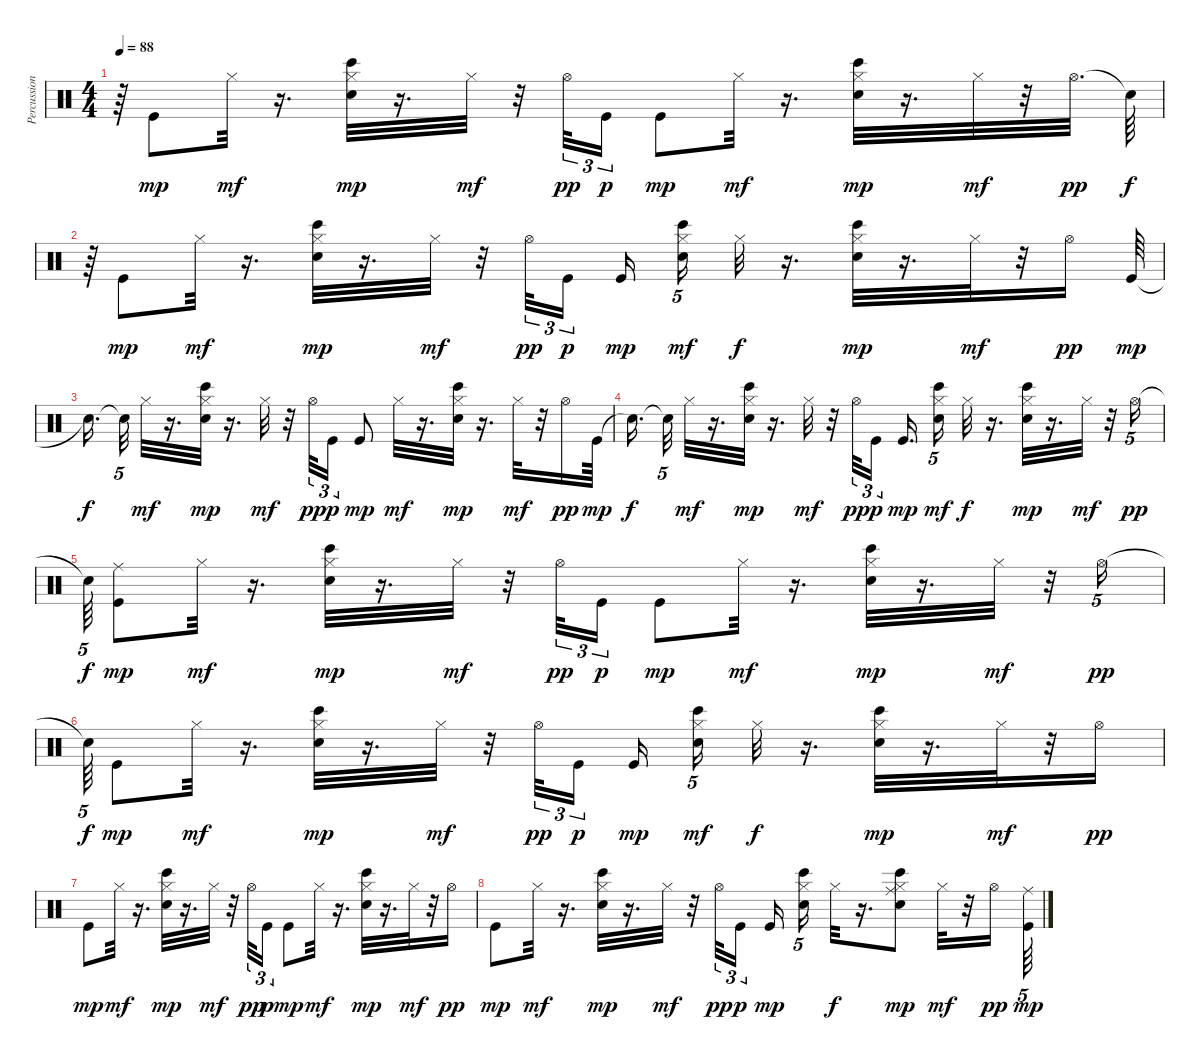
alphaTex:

\track ("Percussion" "Percussion") {instrument percussion}
\staff {score}
\articulation defaults
\ts (4 4)
\tempo 88
\clef neutral
\ks c
r.64{dy f} "Kick (hit)".8{dy mp} "Hi-Hat (closed)".32{dy mf} r.16{d} ("Bongo High (hit)" "Hi-Hat (closed)" "Electric Snare (hit)").32{dy mp} r.16{d} "Hi-Hat (closed)".32{dy mf} r.32 "Hi-Hat (open)".32{tu (3 2) dy pp} "Kick (hit)".16{tu (3 2) dy p} "Kick (hit)".8{dy mp} "Hi-Hat (closed)".32{dy mf} r.16{d} ("Bongo High (hit)" "Hi-Hat (closed)" "Electric Snare (hit)").32{dy mp} r.16{d} "Hi-Hat (closed)".32{dy mf} r.32 "Hi-Hat (open)".32{d dy pp} "Snare (hit)"{t}.64{dy f} |
r.64 "Kick (hit)".8{dy mp} "Hi-Hat (closed)".32{dy mf} r.16{d} ("Bongo High (hit)" "Hi-Hat (closed)" "Electric Snare (hit)").32{dy mp} r.16{d} "Hi-Hat (closed)".32{dy mf} r.32 "Hi-Hat (open)".32{tu (3 2) dy pp} "Kick (hit)".16{tu (3 2) dy p} "Kick (hit)".16{dy mp} ("Bongo High (hit)" "Electric Snare (hit)" "Hi-Hat (closed)").16{tu (5 4) dy mf} "Hi-Hat (closed)".32{dy f} r.16{d} ("Bongo High (hit)" "Hi-Hat (closed)" "Electric Snare (hit)").32{dy mp} r.16{d} "Hi-Hat (closed)".32{dy mf} r.32 "Hi-Hat (open)".16{dy pp} "Kick (hit)".64{dy mp} |
"Snare (hit)"{t}.16{d dy f} "Snare (hit)"{t}.32{tu (5 4)} "Hi-Hat (closed)".32{dy mf} r.16{d} ("Bongo High (hit)" "Hi-Hat (closed)" "Electric Snare (hit)").32{dy mp} r.16{d} "Hi-Hat (closed)".32{dy mf} r.32 "Hi-Hat (open)".32{tu (3 2) dy pp} "Kick (hit)".16{tu (3 2) dy p} "Kick (hit)".8{dy mp} "Hi-Hat (closed)".32{dy mf} r.16{d} ("Bongo High (hit)" "Hi-Hat (closed)" "Electric Snare (hit)").32{dy mp} r.16{d} "Hi-Hat (closed)".32{dy mf} r.32 "Hi-Hat (open)".16{dy pp} "Kick (hit)".64{dy mp} |
"Snare (hit)"{t}.16{d dy f} "Snare (hit)"{t}.32{tu (5 4)} "Hi-Hat (closed)".32{dy mf} r.16{d} ("Bongo High (hit)" "Hi-Hat (closed)" "Electric Snare (hit)").32{dy mp} r.16{d} "Hi-Hat (closed)".32{dy mf} r.32 "Hi-Hat (open)".32{tu (3 2) dy pp} "Kick (hit)".16{tu (3 2) dy p} "Kick (hit)".16{d dy mp} ("Bongo High (hit)" "Electric Snare (hit)" "Hi-Hat (closed)").16{tu (5 4) dy mf} "Hi-Hat (closed)".32{dy f} r.16{d} ("Bongo High (hit)" "Hi-Hat (closed)" "Electric Snare (hit)").32{dy mp} r.16{d} "Hi-Hat (closed)".32{dy mf} r.32 "Hi-Hat (open)".16{tu (5 4) dy pp} |
"Snare (hit)"{t}.64{tu (5 4) dy f} ("Ride (middle)" "Kick (hit)").8{dy mp} "Hi-Hat (closed)".32{dy mf} r.16{d} ("Bongo High (hit)" "Hi-Hat (closed)" "Electric Snare (hit)").32{dy mp} r.16{d} "Hi-Hat (closed)".32{dy mf} r.32 "Hi-Hat (open)".32{tu (3 2) dy pp} "Kick (hit)".16{tu (3 2) dy p} "Kick (hit)".8{dy mp} "Hi-Hat (closed)".32{dy mf} r.16{d} ("Bongo High (hit)" "Hi-Hat (closed)" "Electric Snare (hit)").32{dy mp} r.16{d} "Hi-Hat (closed)".32{dy mf} r.32 "Hi-Hat (open)".16{tu (5 4) dy pp} |
"Snare (hit)"{t}.64{tu (5 4) dy f} "Kick (hit)".8{dy mp} "Hi-Hat (closed)".32{dy mf} r.16{d} ("Bongo High (hit)" "Hi-Hat (closed)" "Electric Snare (hit)").32{dy mp} r.16{d} "Hi-Hat (closed)".32{dy mf} r.32 "Hi-Hat (open)".32{tu (3 2) dy pp} "Kick (hit)".16{tu (3 2) dy p} "Kick (hit)".16{dy mp} ("Bongo High (hit)" "Electric Snare (hit)" "Hi-Hat (closed)").16{tu (5 4) dy mf} "Hi-Hat (closed)".32{dy f} r.16{d} ("Bongo High (hit)" "Hi-Hat (closed)" "Electric Snare (hit)").32{dy mp} r.16{d} "Hi-Hat (closed)".32{dy mf} r.32 "Hi-Hat (open)".16{dy pp} |
"Kick (hit)".8{dy mp} "Hi-Hat (closed)".32{dy mf} r.16{d} ("Bongo High (hit)" "Hi-Hat (closed)" "Electric Snare (hit)").32{dy mp} r.16{d} "Hi-Hat (closed)".32{dy mf} r.32 "Hi-Hat (open)".32{tu (3 2) dy pp} "Kick (hit)".16{tu (3 2) dy p} "Kick (hit)".8{dy mp} "Hi-Hat (closed)".32{dy mf} r.16{d} ("Bongo High (hit)" "Hi-Hat (closed)" "Electric Snare (hit)").32{dy mp} r.16{d} "Hi-Hat (closed)".32{dy mf} r.32 "Hi-Hat (open)".16{dy pp} |
"Kick (hit)".8{dy mp} "Hi-Hat (closed)".32{dy mf} r.16{d} ("Bongo High (hit)" "Hi-Hat (closed)" "Electric Snare (hit)").32{dy mp} r.16{d} "Hi-Hat (closed)".32{dy mf} r.32 "Hi-Hat (open)".32{tu (3 2) dy pp} "Kick (hit)".16{tu (3 2) dy p} "Kick (hit)".16{dy mp} ("Hi-Hat (closed)" "Bongo High (hit)" "Electric Snare (hit)").16{tu (5 4)} "Hi-Hat (closed)".32{dy f} r.16{d} ("Ride (middle)" "Bongo High (hit)" "Hi-Hat (closed)" "Electric Snare (hit)").8{dy mp} "Hi-Hat (closed)".32{dy mf} r.32 "Hi-Hat (open)".16{dy pp} ("Ride (middle)" "Kick (hit)").64{tu (5 4) dy mp}
